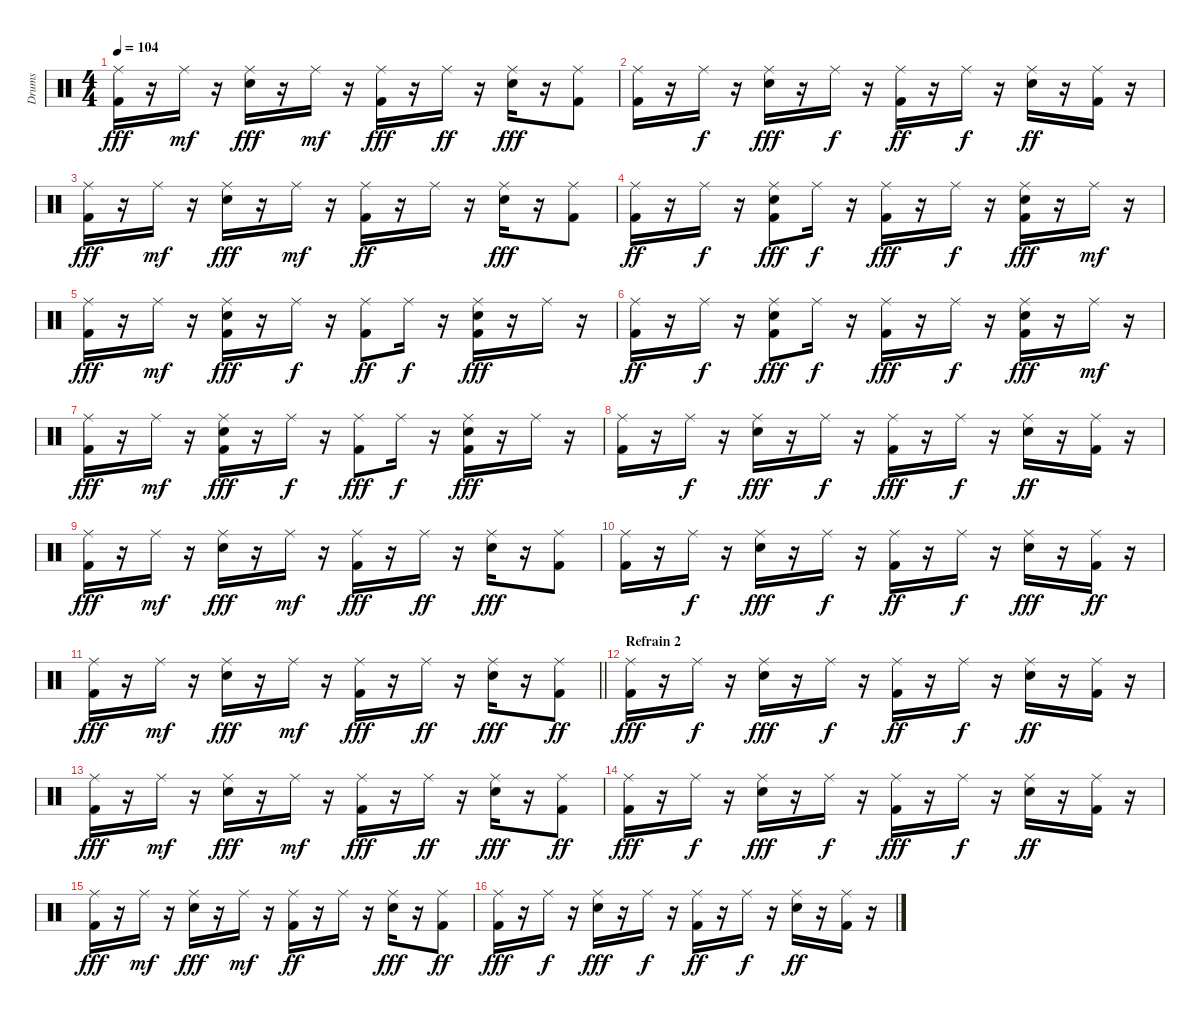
\track ("Drums" "Drums") {instrument percussion}
\staff {score}
\articulation defaults
\ts (4 4)
\tempo 104
\clef neutral
\ks c
("Ride (middle)" "Kick (hit) 2").16{dy fff} r.16 "Ride (middle)".16{dy mf} r.16 ("Snare (hit) 2" "Ride (middle)").16{dy fff} r.16 "Ride (middle)".16{dy mf} r.16 ("Ride (middle)" "Kick (hit) 2").16{dy fff} r.16 "Ride (middle)".16{dy ff} r.16 ("Ride (middle)" "Snare (hit) 2").16{dy fff} r.16 ("Kick (hit) 2" "Ride (middle)").8 |
("Kick (hit) 2" "Ride (middle)").16 r.16 "Ride (middle)".16{dy f} r.16 ("Ride (middle)" "Snare (hit) 2").16{dy fff} r.16 "Ride (middle)".16{dy f} r.16 ("Kick (hit) 2" "Ride (middle)").16{dy ff} r.16 "Ride (middle)".16{dy f} r.16 ("Snare (hit) 2" "Ride (middle)").16{dy ff} r.16 ("Ride (middle)" "Kick (hit) 2").16 r.16 |
("Ride (middle)" "Kick (hit) 2").16{dy fff} r.16 "Ride (middle)".16{dy mf} r.16 ("Snare (hit) 2" "Ride (middle)").16{dy fff} r.16 "Ride (middle)".16{dy mf} r.16 ("Kick (hit) 2" "Ride (middle)").16{dy ff} r.16 "Ride (middle)".16 r.16 ("Snare (hit) 2" "Ride (middle)").16{dy fff} r.16 ("Kick (hit) 2" "Ride (middle)").8 |
("Kick (hit) 2" "Ride (middle)").16{dy ff} r.16 "Ride (middle)".16{dy f} r.16 ("Kick (hit) 2" "Ride (middle)" "Snare (hit) 2").8{dy fff} "Ride (middle)".16{dy f} r.16 ("Ride (middle)" "Kick (hit) 2").16{dy fff} r.16 "Ride (middle)".16{dy f} r.16 ("Kick (hit) 2" "Snare (hit) 2" "Ride (middle)").16{dy fff} r.16 "Ride (middle)".16{dy mf} r.16 |
("Ride (middle)" "Kick (hit) 2").16{dy fff} r.16 "Ride (middle)".16{dy mf} r.16 ("Kick (hit) 2" "Ride (middle)" "Snare (hit) 2").16{dy fff} r.16 "Ride (middle)".16{dy f} r.16 ("Kick (hit) 2" "Ride (middle)").8{dy ff} "Ride (middle)".16{dy f} r.16 ("Snare (hit) 2" "Kick (hit) 2" "Ride (middle)").16{dy fff} r.16 "Ride (middle)".16 r.16 |
("Ride (middle)" "Kick (hit) 2").16{dy ff} r.16 "Ride (middle)".16{dy f} r.16 ("Ride (middle)" "Kick (hit) 2" "Snare (hit) 2").8{dy fff} "Ride (middle)".16{dy f} r.16 ("Ride (middle)" "Kick (hit) 2").16{dy fff} r.16 "Ride (middle)".16{dy f} r.16 ("Ride (middle)" "Snare (hit) 2" "Kick (hit) 2").16{dy fff} r.16 "Ride (middle)".16{dy mf} r.16 |
("Ride (middle)" "Kick (hit) 2").16{dy fff} r.16 "Ride (middle)".16{dy mf} r.16 ("Snare (hit) 2" "Ride (middle)" "Kick (hit) 2").16{dy fff} r.16 "Ride (middle)".16{dy f} r.16 ("Ride (middle)" "Kick (hit) 2").8{dy fff} "Ride (middle)".16{dy f} r.16 ("Snare (hit) 2" "Kick (hit) 2" "Ride (middle)").16{dy fff} r.16 "Ride (middle)".16 r.16 |
("Ride (middle)" "Kick (hit) 2").16 r.16 "Ride (middle)".16{dy f} r.16 ("Ride (middle)" "Snare (hit) 2").16{dy fff} r.16 "Ride (middle)".16{dy f} r.16 ("Ride (middle)" "Kick (hit) 2").16{dy fff} r.16 "Ride (middle)".16{dy f} r.16 ("Snare (hit) 2" "Ride (middle)").16{dy ff} r.16 ("Ride (middle)" "Kick (hit) 2").16 r.16 |
("Kick (hit) 2" "Ride (middle)").16{dy fff} r.16 "Ride (middle)".16{dy mf} r.16 ("Snare (hit) 2" "Ride (middle)").16{dy fff} r.16 "Ride (middle)".16{dy mf} r.16 ("Ride (middle)" "Kick (hit) 2").16{dy fff} r.16 "Ride (middle)".16{dy ff} r.16 ("Ride (middle)" "Snare (hit) 2").16{dy fff} r.16 ("Kick (hit) 2" "Ride (middle)").8 |
("Kick (hit) 2" "Ride (middle)").16 r.16 "Ride (middle)".16{dy f} r.16 ("Ride (middle)" "Snare (hit) 2").16{dy fff} r.16 "Ride (middle)".16{dy f} r.16 ("Kick (hit) 2" "Ride (middle)").16{dy ff} r.16 "Ride (middle)".16{dy f} r.16 ("Ride (middle)" "Snare (hit) 2").16{dy fff} r.16 ("Kick (hit) 2" "Ride (middle)").16{dy ff} r.16 |
\barLineRight lightlight
("Ride (middle)" "Kick (hit) 2").16{dy fff} r.16 "Ride (middle)".16{dy mf} r.16 ("Ride (middle)" "Snare (hit) 2").16{dy fff} r.16 "Ride (middle)".16{dy mf} r.16 ("Ride (middle)" "Kick (hit) 2").16{dy fff} r.16 "Ride (middle)".16{dy ff} r.16 ("Snare (hit) 2" "Ride (middle)").16{dy fff} r.16 ("Ride (middle)" "Kick (hit) 2").8{dy ff} |
\section ("" "Refrain 2")
("Kick (hit) 2" "Ride (middle)").16{dy fff} r.16 "Ride (middle)".16{dy f} r.16 ("Snare (hit) 2" "Ride (middle)").16{dy fff} r.16 "Ride (middle)".16{dy f} r.16 ("Kick (hit) 2" "Ride (middle)").16{dy ff} r.16 "Ride (middle)".16{dy f} r.16 ("Snare (hit) 2" "Ride (middle)").16{dy ff} r.16 ("Ride (middle)" "Kick (hit) 2").16 r.16 |
("Kick (hit) 2" "Ride (middle)").16{dy fff} r.16 "Ride (middle)".16{dy mf} r.16 ("Snare (hit) 2" "Ride (middle)").16{dy fff} r.16 "Ride (middle)".16{dy mf} r.16 ("Ride (middle)" "Kick (hit) 2").16{dy fff} r.16 "Ride (middle)".16{dy ff} r.16 ("Ride (middle)" "Snare (hit) 2").16{dy fff} r.16 ("Ride (middle)" "Kick (hit) 2").8{dy ff} |
("Kick (hit) 2" "Ride (middle)").16{dy fff} r.16 "Ride (middle)".16{dy f} r.16 ("Ride (middle)" "Snare (hit) 2").16{dy fff} r.16 "Ride (middle)".16{dy f} r.16 ("Ride (middle)" "Kick (hit) 2").16{dy fff} r.16 "Ride (middle)".16{dy f} r.16 ("Snare (hit) 2" "Ride (middle)").16{dy ff} r.16 ("Kick (hit) 2" "Ride (middle)").16 r.16 |
("Ride (middle)" "Kick (hit) 2").16{dy fff} r.16 "Ride (middle)".16{dy mf} r.16 ("Ride (middle)" "Snare (hit) 2").16{dy fff} r.16 "Ride (middle)".16{dy mf} r.16 ("Kick (hit) 2" "Ride (middle)").16{dy ff} r.16 "Ride (middle)".16 r.16 ("Snare (hit) 2" "Ride (middle)").16{dy fff} r.16 ("Ride (middle)" "Kick (hit) 2").8{dy ff} |
("Kick (hit) 2" "Ride (middle)").16{dy fff} r.16 "Ride (middle)".16{dy f} r.16 ("Snare (hit) 2" "Ride (middle)").16{dy fff} r.16 "Ride (middle)".16{dy f} r.16 ("Kick (hit) 2" "Ride (middle)").16{dy ff} r.16 "Ride (middle)".16{dy f} r.16 ("Snare (hit) 2" "Ride (middle)").16{dy ff} r.16 ("Ride (middle)" "Kick (hit) 2").16 r.16
